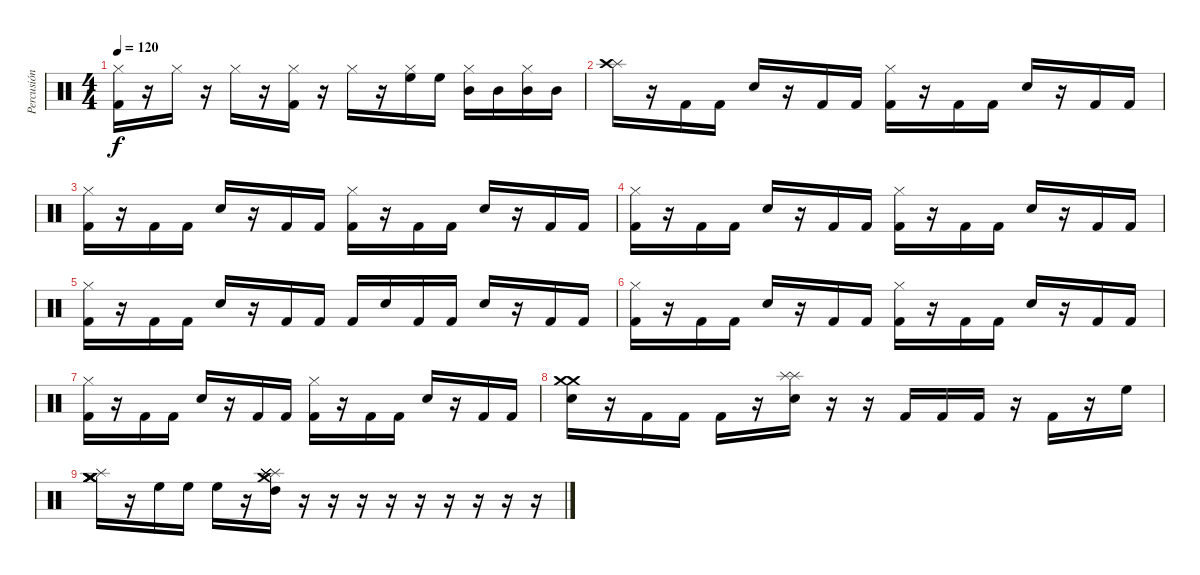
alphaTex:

\track ("Percusión" "Percusión") {instrument percussion}
\staff {score}
\articulation defaults
\ts (4 4)
\tempo 120
\clef neutral
\ks c
("Kick (hit) 2" "Hi-Hat (closed)").16{dy f} r.16 "Hi-Hat (closed)".16 r.16 "Hi-Hat (closed)".16 r.16 ("Kick (hit) 2" "Hi-Hat (closed)").16 r.16 "Hi-Hat (closed)".16 r.16 ("High Floor Tom (hit)" "Hi-Hat (closed)").16 "High Floor Tom (hit)".16 ("Mid Tom (hit)" "Hi-Hat (closed)").16 "Mid Tom (hit)".16 ("Mid Tom (hit)" "Hi-Hat (closed)").16 "Mid Tom (hit)".16 |
("Splash (hit)" "Crash high (hit)").16 r.16 "Kick (hit) 2".16 "Kick (hit) 2".16 "Snare (hit) 2".16 r.16 "Kick (hit) 2".16 "Kick (hit) 2".16 ("Hi-Hat (closed)" "Kick (hit) 2").16 r.16 "Kick (hit) 2".16 "Kick (hit) 2".16 "Snare (hit) 2".16 r.16 "Kick (hit) 2".16 "Kick (hit) 2".16 |
("Hi-Hat (closed)" "Kick (hit) 2").16 r.16 "Kick (hit) 2".16 "Kick (hit) 2".16 "Snare (hit) 2".16 r.16 "Kick (hit) 2".16 "Kick (hit) 2".16 ("Hi-Hat (closed)" "Kick (hit) 2").16 r.16 "Kick (hit) 2".16 "Kick (hit) 2".16 "Snare (hit) 2".16 r.16 "Kick (hit) 2".16 "Kick (hit) 2".16 |
("Hi-Hat (closed)" "Kick (hit) 2").16 r.16 "Kick (hit) 2".16 "Kick (hit) 2".16 "Snare (hit) 2".16 r.16 "Kick (hit) 2".16 "Kick (hit) 2".16 ("Hi-Hat (closed)" "Kick (hit) 2").16 r.16 "Kick (hit) 2".16 "Kick (hit) 2".16 "Snare (hit) 2".16 r.16 "Kick (hit) 2".16 "Kick (hit) 2".16 |
("Hi-Hat (closed)" "Kick (hit) 2").16 r.16 "Kick (hit) 2".16 "Kick (hit) 2".16 "Snare (hit) 2".16 r.16 "Kick (hit) 2".16 "Kick (hit) 2".16 "Kick (hit) 2".16 "Snare (hit) 2".16 "Kick (hit) 2".16 "Kick (hit) 2".16 "Snare (hit) 2".16 r.16 "Kick (hit) 2".16 "Kick (hit) 2".16 |
("Hi-Hat (closed)" "Kick (hit) 2").16 r.16 "Kick (hit) 2".16 "Kick (hit) 2".16 "Snare (hit) 2".16 r.16 "Kick (hit) 2".16 "Kick (hit) 2".16 ("Hi-Hat (closed)" "Kick (hit) 2").16 r.16 "Kick (hit) 2".16 "Kick (hit) 2".16 "Snare (hit) 2".16 r.16 "Kick (hit) 2".16 "Kick (hit) 2".16 |
("Hi-Hat (closed)" "Kick (hit) 2").16 r.16 "Kick (hit) 2".16 "Kick (hit) 2".16 "Snare (hit) 2".16 r.16 "Kick (hit) 2".16 "Kick (hit) 2".16 ("Hi-Hat (closed)" "Kick (hit) 2").16 r.16 "Kick (hit) 2".16 "Kick (hit) 2".16 "Snare (hit) 2".16 r.16 "Kick (hit) 2".16 "Kick (hit) 2".16 |
("Crash medium (hit)" "Crash medium (hit)" "Snare (hit) 2").16 r.16 "Kick (hit) 2".16 "Kick (hit) 2".16 "Kick (hit) 2".16 r.16 ("Splash (hit)" "Splash (hit)" "Snare (hit) 2").16 r.16 r.16 "Kick (hit) 2".16 "Kick (hit) 2".16 "Kick (hit) 2".16 r.16 "Kick (hit) 2".16 r.16 "High Floor Tom (hit)".16 |
("Crash medium (hit)" "Crash medium (hit)" "Crash medium (hit)" "Crash medium (hit)" "Crash medium (hit)" "Splash (hit)").16 r.16 "High Floor Tom (hit)".16 "High Floor Tom (hit)".16 "High Floor Tom (hit)".16 r.16 ("High Tom (hit)" "Crash medium (hit)" "Splash (hit)" "Splash (hit)" "Splash (hit)" "Splash (hit)").16 r.16 r.16 r.16 r.16 r.16 r.16 r.16 r.16 r.16
